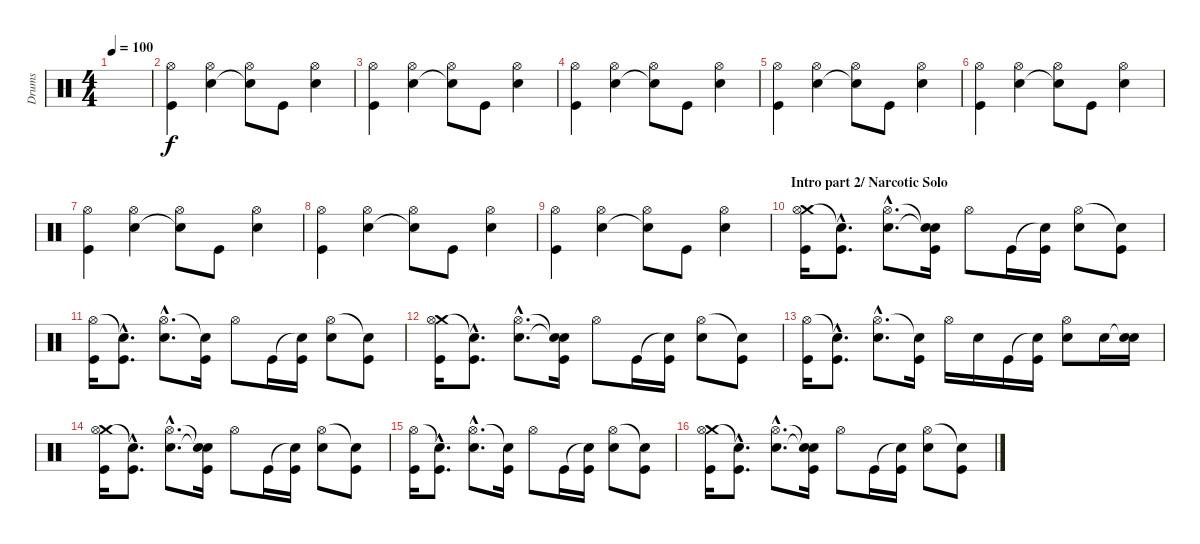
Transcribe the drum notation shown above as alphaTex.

\track ("Drums" "Drums") {instrument percussion}
\staff {score}
\articulation defaults
\ts (4 4)
\tempo 100
\clef neutral
\ks c
|
("Hi-Hat (open)" "Kick (hit)").4 ("Hi-Hat (open)" "Snare (hit) 2").4 ("Hi-Hat (open)" "Snare (hit)"{t}).8 "Kick (hit)".8 ("Hi-Hat (open)" "Snare (hit) 2").4 |
("Hi-Hat (open)" "Kick (hit)").4 ("Hi-Hat (open)" "Snare (hit) 2").4 ("Hi-Hat (open)" "Snare (hit)"{t}).8 "Kick (hit)".8 ("Hi-Hat (open)" "Snare (hit) 2").4 |
("Hi-Hat (open)" "Kick (hit)").4 ("Hi-Hat (open)" "Snare (hit) 2").4 ("Hi-Hat (open)" "Snare (hit)"{t}).8 "Kick (hit)".8 ("Hi-Hat (open)" "Snare (hit) 2").4 |
("Hi-Hat (open)" "Kick (hit)").4 ("Hi-Hat (open)" "Snare (hit) 2").4 ("Hi-Hat (open)" "Snare (hit)"{t}).8 "Kick (hit)".8 ("Hi-Hat (open)" "Snare (hit) 2").4 |
("Hi-Hat (open)" "Kick (hit)").4 ("Hi-Hat (open)" "Snare (hit) 2").4 ("Hi-Hat (open)" "Snare (hit)"{t}).8 "Kick (hit)".8 ("Hi-Hat (open)" "Snare (hit) 2").4 |
("Hi-Hat (open)" "Kick (hit)").4 ("Hi-Hat (open)" "Snare (hit) 2").4 ("Hi-Hat (open)" "Snare (hit)"{t}).8 "Kick (hit)".8 ("Hi-Hat (open)" "Snare (hit) 2").4 |
("Hi-Hat (open)" "Kick (hit)").4 ("Hi-Hat (open)" "Snare (hit) 2").4 ("Hi-Hat (open)" "Snare (hit)"{t}).8 "Kick (hit)".8 ("Hi-Hat (open)" "Snare (hit) 2").4 |
("Hi-Hat (open)" "Kick (hit)").4 ("Hi-Hat (open)" "Snare (hit) 2").4 ("Hi-Hat (open)" "Snare (hit)"{t}).8 "Kick (hit)".8 ("Hi-Hat (open)" "Snare (hit) 2").4 |
\section ("" "Intro part 2/ Narcotic Solo")
("Crash medium (hit)" "Hi-Hat (open)" "Kick (hit)").16 ("Snare (hit)"{hac t} "Kick (hit)"{hac}).8{d} ("Hi-Hat (open)"{hac} "Electric Snare (hit)"{hac}).8{d} ("Snare (hit)"{t} "Snare (hit)"{t} "Kick (hit)").16 "Hi-Hat (open)".8 "Kick (hit)".16 ("Snare (hit)"{t} "Kick (hit)").16 ("Hi-Hat (open)" "Electric Snare (hit)").8 ("Snare (hit)"{t} "Kick (hit)").8 |
("Hi-Hat (open)" "Kick (hit)").16 ("Snare (hit)"{hac t} "Kick (hit)"{hac}).8{d} ("Hi-Hat (open)"{hac} "Electric Snare (hit)"{hac}).8{d} ("Snare (hit)"{t} "Kick (hit)").16 "Hi-Hat (open)".8 "Kick (hit)".16 ("Snare (hit)"{t} "Kick (hit)").16 ("Hi-Hat (open)" "Electric Snare (hit)").8 ("Snare (hit)"{t} "Kick (hit)").8 |
("Crash medium (hit)" "Hi-Hat (open)" "Kick (hit)").16 ("Snare (hit)"{hac t} "Kick (hit)"{hac}).8{d} ("Hi-Hat (open)"{hac} "Electric Snare (hit)"{hac}).8{d} ("Snare (hit)"{t} "Snare (hit)"{t} "Kick (hit)").16 "Hi-Hat (open)".8 "Kick (hit)".16 ("Snare (hit)"{t} "Kick (hit)").16 ("Hi-Hat (open)" "Electric Snare (hit)").8 ("Snare (hit)"{t} "Kick (hit)").8 |
("Hi-Hat (open)" "Kick (hit)").16 ("Snare (hit)"{hac t} "Kick (hit)"{hac}).8{d} ("Hi-Hat (open)"{hac} "Electric Snare (hit)"{hac}).8{d} ("Snare (hit)"{t} "Kick (hit)").16 "Hi-Hat (open)".16 "Electric Snare (hit)".16 "Kick (hit)".16 ("Snare (hit)"{t} "Kick (hit)").16 ("Hi-Hat (open)" "Electric Snare (hit)").8 "Electric Snare (hit)".16 ("Snare (hit)"{t} "Electric Snare (hit)").16 |
("Crash medium (hit)" "Hi-Hat (open)" "Kick (hit)").16 ("Snare (hit)"{hac t} "Kick (hit)"{hac}).8{d} ("Hi-Hat (open)"{hac} "Electric Snare (hit)"{hac}).8{d} ("Snare (hit)"{t} "Snare (hit)"{t} "Kick (hit)").16 "Hi-Hat (open)".8 "Kick (hit)".16 ("Snare (hit)"{t} "Kick (hit)").16 ("Hi-Hat (open)" "Electric Snare (hit)").8 ("Snare (hit)"{t} "Kick (hit)").8 |
("Hi-Hat (open)" "Kick (hit)").16 ("Snare (hit)"{hac t} "Kick (hit)"{hac}).8{d} ("Hi-Hat (open)"{hac} "Electric Snare (hit)"{hac}).8{d} ("Snare (hit)"{t} "Kick (hit)").16 "Hi-Hat (open)".8 "Kick (hit)".16 ("Snare (hit)"{t} "Kick (hit)").16 ("Hi-Hat (open)" "Electric Snare (hit)").8 ("Snare (hit)"{t} "Kick (hit)").8 |
("Crash medium (hit)" "Hi-Hat (open)" "Kick (hit)").16 ("Snare (hit)"{hac t} "Kick (hit)"{hac}).8{d} ("Hi-Hat (open)"{hac} "Electric Snare (hit)"{hac}).8{d} ("Snare (hit)"{t} "Snare (hit)"{t} "Kick (hit)").16 "Hi-Hat (open)".8 "Kick (hit)".16 ("Snare (hit)"{t} "Kick (hit)").16 ("Hi-Hat (open)" "Electric Snare (hit)").8 ("Snare (hit)"{t} "Kick (hit)").8
